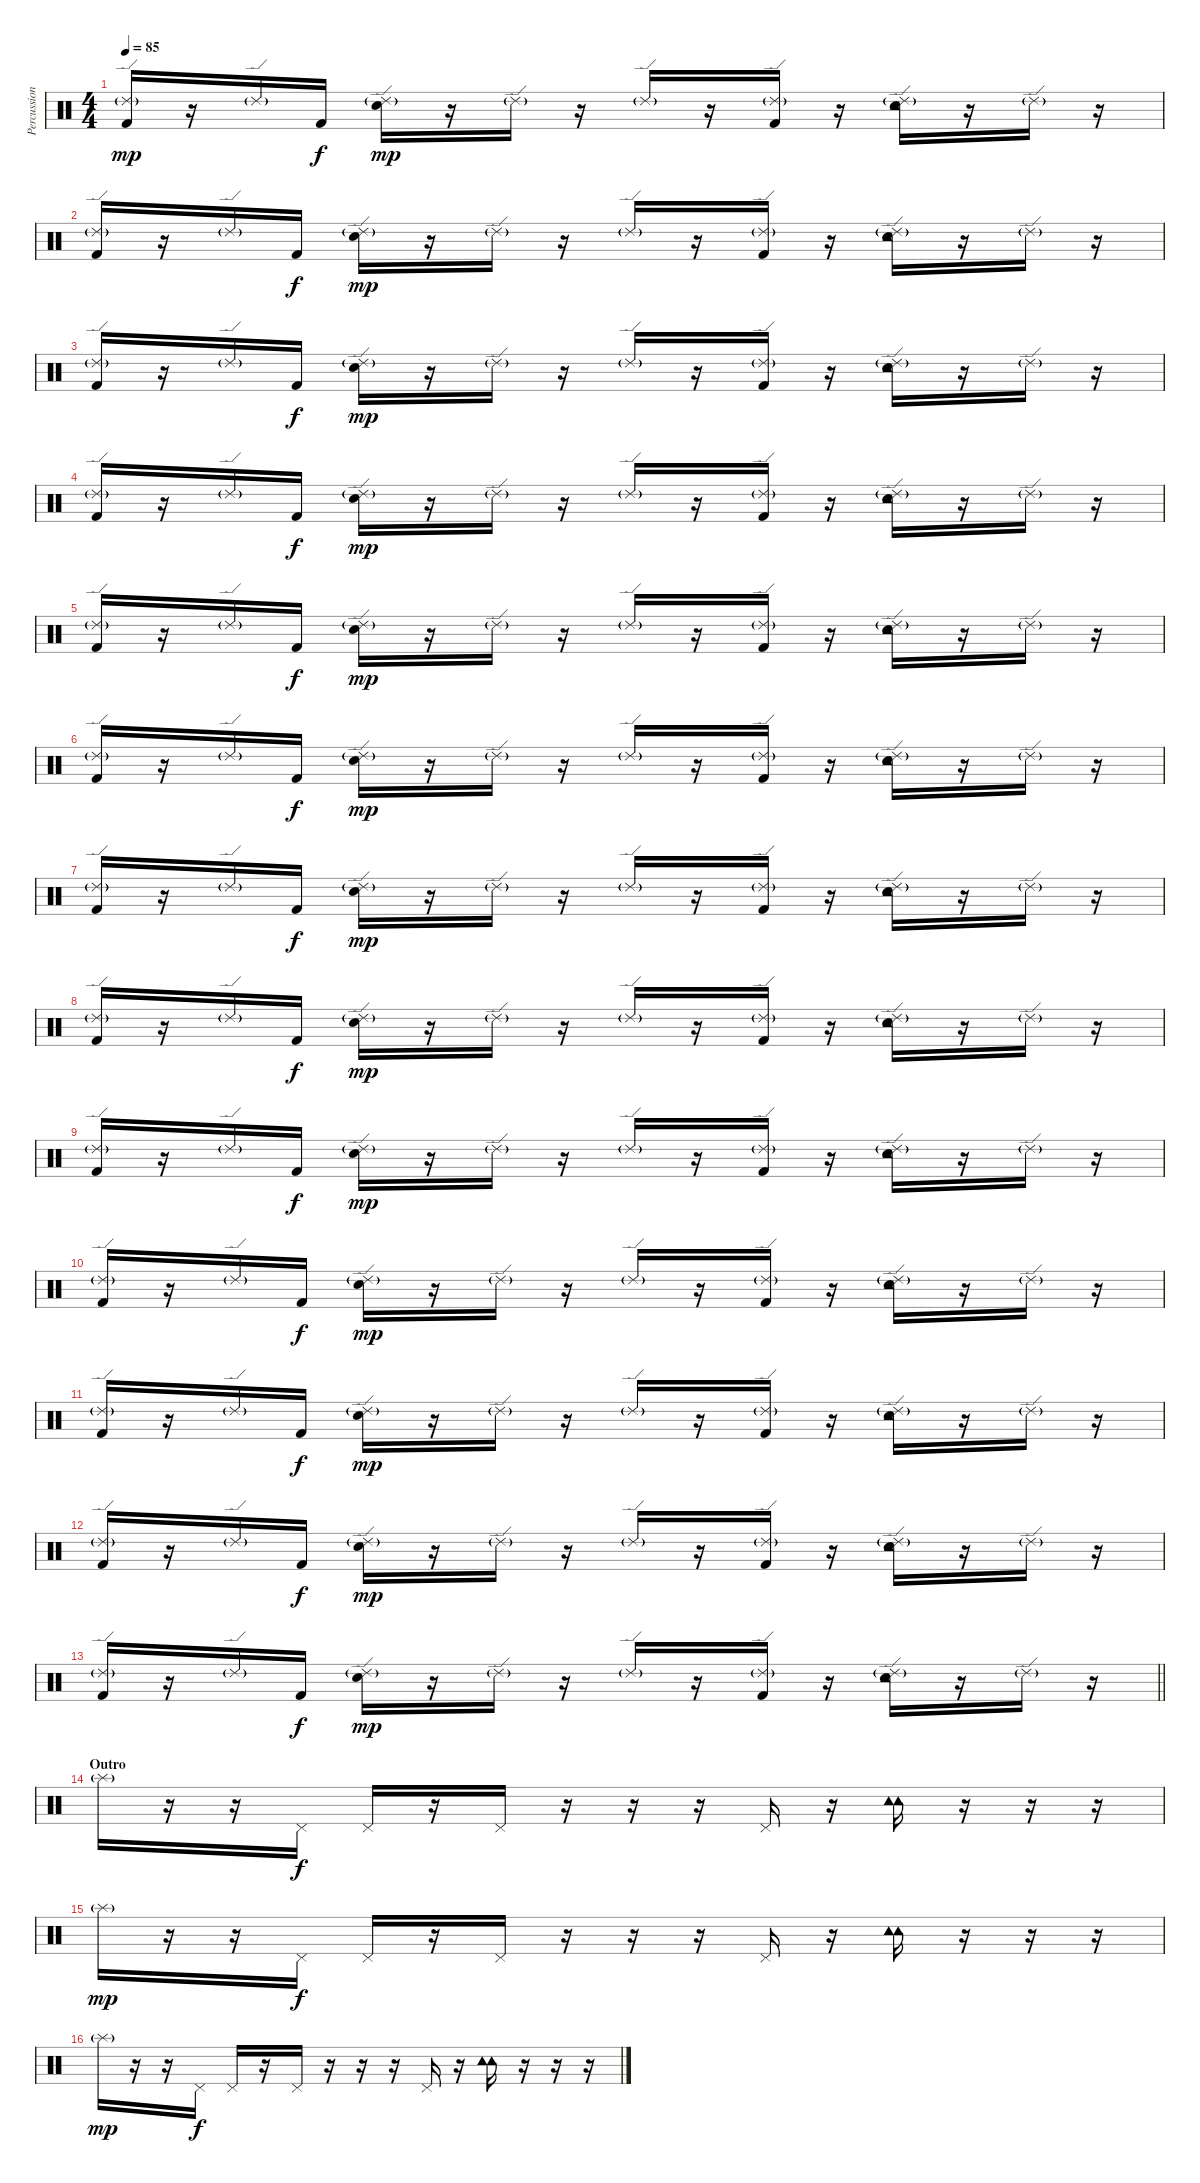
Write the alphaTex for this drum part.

\track ("Percussion" "Percussion") {instrument percussion}
\staff {score}
\articulation defaults
\ts (4 4)
\tempo 85
\clef neutral
\ks c
("Ride (edge) 2"{g} "Kick (hit) 2").16{dy mp} r.16 "Ride (edge) 2"{g}.16 "Kick (hit) 2".16{dy f} ("Ride (edge) 2"{g} "Electric Snare (hit)").16{dy mp} r.16 "Ride (edge) 2"{g}.16 r.16 "Ride (edge) 2"{g}.16 r.16 ("Ride (edge) 2"{g} "Kick (hit) 2").16 r.16 ("Tambourine (hit)" "Ride (edge) 2"{g} "Electric Snare (hit)").16 r.16 "Ride (edge) 2"{g}.16 r.16 |
("Ride (edge) 2"{g} "Kick (hit) 2").16 r.16 "Ride (edge) 2"{g}.16 "Kick (hit) 2".16{dy f} ("Ride (edge) 2"{g} "Electric Snare (hit)").16{dy mp} r.16 "Ride (edge) 2"{g}.16 r.16 "Ride (edge) 2"{g}.16 r.16 ("Ride (edge) 2"{g} "Kick (hit) 2").16 r.16 ("Tambourine (hit)" "Ride (edge) 2"{g} "Electric Snare (hit)").16 r.16 "Ride (edge) 2"{g}.16 r.16 |
("Ride (edge) 2"{g} "Kick (hit) 2").16 r.16 "Ride (edge) 2"{g}.16 "Kick (hit) 2".16{dy f} ("Ride (edge) 2"{g} "Electric Snare (hit)").16{dy mp} r.16 "Ride (edge) 2"{g}.16 r.16 "Ride (edge) 2"{g}.16 r.16 ("Ride (edge) 2"{g} "Kick (hit) 2").16 r.16 ("Tambourine (hit)" "Ride (edge) 2"{g} "Electric Snare (hit)").16 r.16 "Ride (edge) 2"{g}.16 r.16 |
("Ride (edge) 2"{g} "Kick (hit) 2").16 r.16 "Ride (edge) 2"{g}.16 "Kick (hit) 2".16{dy f} ("Ride (edge) 2"{g} "Electric Snare (hit)").16{dy mp} r.16 "Ride (edge) 2"{g}.16 r.16 "Ride (edge) 2"{g}.16 r.16 ("Ride (edge) 2"{g} "Kick (hit) 2").16 r.16 ("Tambourine (hit)" "Ride (edge) 2"{g} "Electric Snare (hit)").16 r.16 "Ride (edge) 2"{g}.16 r.16 |
("Ride (edge) 2"{g} "Kick (hit) 2").16 r.16 "Ride (edge) 2"{g}.16 "Kick (hit) 2".16{dy f} ("Ride (edge) 2"{g} "Electric Snare (hit)").16{dy mp} r.16 "Ride (edge) 2"{g}.16 r.16 "Ride (edge) 2"{g}.16 r.16 ("Ride (edge) 2"{g} "Kick (hit) 2").16 r.16 ("Tambourine (hit)" "Ride (edge) 2"{g} "Electric Snare (hit)").16 r.16 "Ride (edge) 2"{g}.16 r.16 |
("Ride (edge) 2"{g} "Kick (hit) 2").16 r.16 "Ride (edge) 2"{g}.16 "Kick (hit) 2".16{dy f} ("Ride (edge) 2"{g} "Electric Snare (hit)").16{dy mp} r.16 "Ride (edge) 2"{g}.16 r.16 "Ride (edge) 2"{g}.16 r.16 ("Ride (edge) 2"{g} "Kick (hit) 2").16 r.16 ("Tambourine (hit)" "Ride (edge) 2"{g} "Electric Snare (hit)").16 r.16 "Ride (edge) 2"{g}.16 r.16 |
("Ride (edge) 2"{g} "Kick (hit) 2").16 r.16 "Ride (edge) 2"{g}.16 "Kick (hit) 2".16{dy f} ("Ride (edge) 2"{g} "Electric Snare (hit)").16{dy mp} r.16 "Ride (edge) 2"{g}.16 r.16 "Ride (edge) 2"{g}.16 r.16 ("Ride (edge) 2"{g} "Kick (hit) 2").16 r.16 ("Tambourine (hit)" "Ride (edge) 2"{g} "Electric Snare (hit)").16 r.16 "Ride (edge) 2"{g}.16 r.16 |
("Ride (edge) 2"{g} "Kick (hit) 2").16 r.16 "Ride (edge) 2"{g}.16 "Kick (hit) 2".16{dy f} ("Ride (edge) 2"{g} "Electric Snare (hit)").16{dy mp} r.16 "Ride (edge) 2"{g}.16 r.16 "Ride (edge) 2"{g}.16 r.16 ("Ride (edge) 2"{g} "Kick (hit) 2").16 r.16 ("Tambourine (hit)" "Ride (edge) 2"{g} "Electric Snare (hit)").16 r.16 "Ride (edge) 2"{g}.16 r.16 |
("Ride (edge) 2"{g} "Kick (hit) 2").16 r.16 "Ride (edge) 2"{g}.16 "Kick (hit) 2".16{dy f} ("Ride (edge) 2"{g} "Electric Snare (hit)").16{dy mp} r.16 "Ride (edge) 2"{g}.16 r.16 "Ride (edge) 2"{g}.16 r.16 ("Ride (edge) 2"{g} "Kick (hit) 2").16 r.16 ("Tambourine (hit)" "Ride (edge) 2"{g} "Electric Snare (hit)").16 r.16 "Ride (edge) 2"{g}.16 r.16 |
("Ride (edge) 2"{g} "Kick (hit) 2").16 r.16 "Ride (edge) 2"{g}.16 "Kick (hit) 2".16{dy f} ("Ride (edge) 2"{g} "Electric Snare (hit)").16{dy mp} r.16 "Ride (edge) 2"{g}.16 r.16 "Ride (edge) 2"{g}.16 r.16 ("Ride (edge) 2"{g} "Kick (hit) 2").16 r.16 ("Tambourine (hit)" "Ride (edge) 2"{g} "Electric Snare (hit)").16 r.16 "Ride (edge) 2"{g}.16 r.16 |
("Ride (edge) 2"{g} "Kick (hit) 2").16 r.16 "Ride (edge) 2"{g}.16 "Kick (hit) 2".16{dy f} ("Ride (edge) 2"{g} "Electric Snare (hit)").16{dy mp} r.16 "Ride (edge) 2"{g}.16 r.16 "Ride (edge) 2"{g}.16 r.16 ("Ride (edge) 2"{g} "Kick (hit) 2").16 r.16 ("Tambourine (hit)" "Ride (edge) 2"{g} "Electric Snare (hit)").16 r.16 "Ride (edge) 2"{g}.16 r.16 |
("Ride (edge) 2"{g} "Kick (hit) 2").16 r.16 "Ride (edge) 2"{g}.16 "Kick (hit) 2".16{dy f} ("Ride (edge) 2"{g} "Electric Snare (hit)").16{dy mp} r.16 "Ride (edge) 2"{g}.16 r.16 "Ride (edge) 2"{g}.16 r.16 ("Ride (edge) 2"{g} "Kick (hit) 2").16 r.16 ("Tambourine (hit)" "Ride (edge) 2"{g} "Electric Snare (hit)").16 r.16 "Ride (edge) 2"{g}.16 r.16 |
\barLineRight lightlight
("Ride (edge) 2"{g} "Kick (hit) 2").16 r.16 "Ride (edge) 2"{g}.16 "Kick (hit) 2".16{dy f} ("Ride (edge) 2"{g} "Electric Snare (hit)").16{dy mp} r.16 "Ride (edge) 2"{g}.16 r.16 "Ride (edge) 2"{g}.16 r.16 ("Ride (edge) 2"{g} "Kick (hit) 2").16 r.16 ("Tambourine (hit)" "Ride (edge) 2"{g} "Electric Snare (hit)").16 r.16 "Ride (edge) 2"{g}.16 r.16 |
\section ("" "Outro")
"Splash (hit)"{g}.16 r.16 r.16 "Pedal Hi-Hat (hit)".16{dy f} "Pedal Hi-Hat (hit)".16 r.16 "Pedal Hi-Hat (hit)".16 r.16 r.16 r.16 "Pedal Hi-Hat (hit)".16 r.16 ("Tambourine (hit)" "Tambourine (hit)").16 r.16 r.16 r.16 |
"Splash (hit)"{g}.16{dy mp} r.16 r.16 "Pedal Hi-Hat (hit)".16{dy f} "Pedal Hi-Hat (hit)".16 r.16 "Pedal Hi-Hat (hit)".16 r.16 r.16 r.16 "Pedal Hi-Hat (hit)".16 r.16 ("Tambourine (hit)" "Tambourine (hit)").16 r.16 r.16 r.16 |
"Splash (hit)"{g}.16{dy mp} r.16 r.16 "Pedal Hi-Hat (hit)".16{dy f} "Pedal Hi-Hat (hit)".16 r.16 "Pedal Hi-Hat (hit)".16 r.16 r.16 r.16 "Pedal Hi-Hat (hit)".16 r.16 ("Tambourine (hit)" "Tambourine (hit)").16 r.16 r.16 r.16
